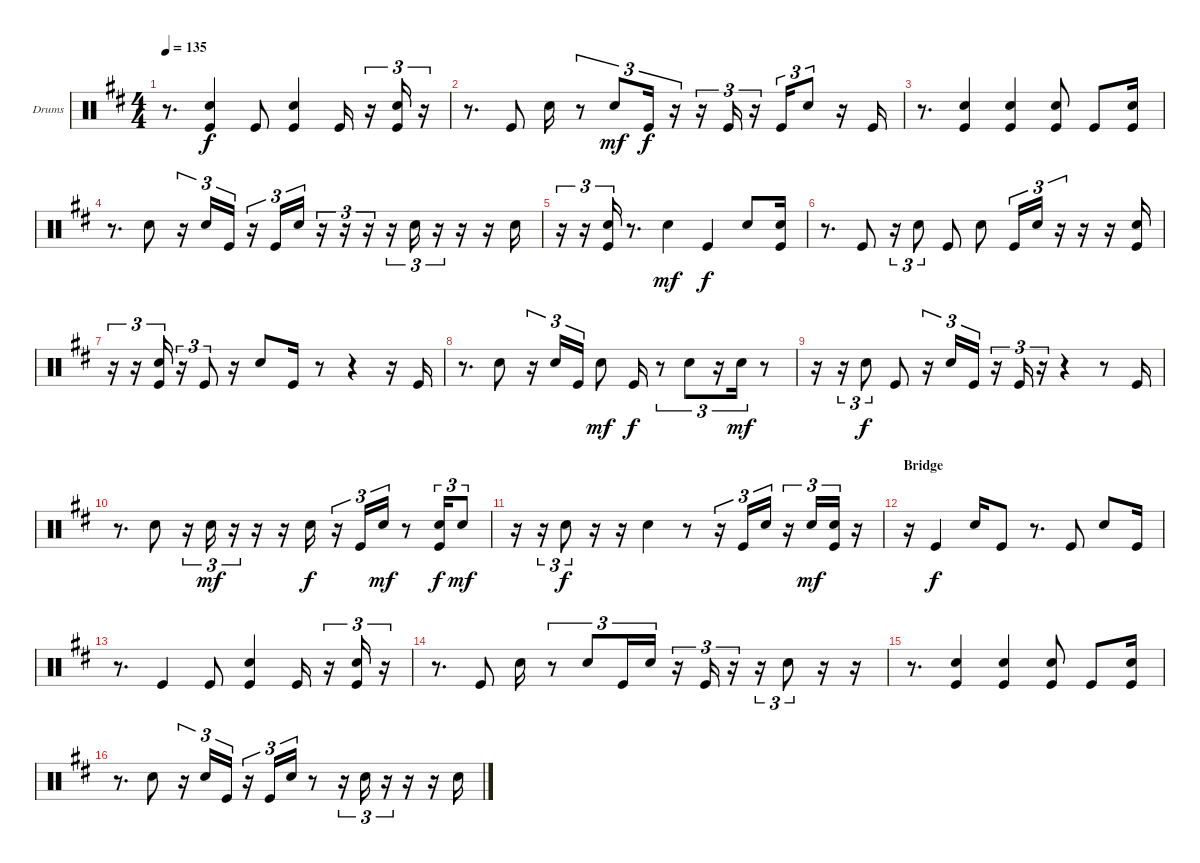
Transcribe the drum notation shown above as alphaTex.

\bracketExtendMode groupsimilarinstruments
\firstSystemTrackNameOrientation horizontal
\otherSystemsTrackNameOrientation horizontal
\track ("Kick" "Drums") {instrument percussion}
\staff {score}
\articulation defaults
\ts (4 4)
\tempo 135
\clef neutral
\ks d
r.8{d dy f} ("Kick (hit)" "Snare (hit) 2").4 "Kick (hit)".8 ("Kick (hit)" "Snare (hit) 2").4 "Kick (hit)".16 r.16{tu (3 2)} ("Kick (hit)" "Snare (hit) 2").16{tu (3 2)} r.16{tu (3 2)} |
r.8{d} "Kick (hit)".8 "Snare (hit) 2".16 r.8{tu (3 2)} "Snare (hit) 2".8{tu (3 2) dy mf} "Kick (hit)".16{tu (3 2) dy f} r.16{tu (3 2)} r.16{tu (3 2)} "Kick (hit)".16{tu (3 2)} r.16{tu (3 2)} "Kick (hit)".16{tu (3 2)} "Snare (hit) 2".8{tu (3 2)} r.16 "Kick (hit)".16 |
r.8{d} ("Kick (hit)" "Snare (hit) 2").4 ("Kick (hit)" "Snare (hit) 2").4 ("Kick (hit)" "Snare (hit) 2").8 "Kick (hit)".8 ("Kick (hit)" "Snare (hit) 2").16 |
r.8{d} "Snare (hit) 2".8 r.16{tu (3 2)} "Snare (hit) 2".16{tu (3 2)} "Kick (hit)".16{tu (3 2)} r.16{tu (3 2)} "Kick (hit)".16{tu (3 2)} "Snare (hit) 2".16{tu (3 2)} r.16{tu (3 2)} r.16{tu (3 2)} r.16{tu (3 2)} r.16{tu (3 2)} "Snare (hit) 2".16{tu (3 2)} r.16{tu (3 2)} r.16 r.16 "Snare (hit) 2".16 |
r.16{tu (3 2)} r.16{tu (3 2)} ("Kick (hit)" "Snare (hit) 2").16{tu (3 2)} r.8{d} "Snare (hit) 2".4{dy mf} "Kick (hit)".4{dy f} "Snare (hit) 2".8 ("Kick (hit)" "Snare (hit) 2").16 |
r.8{d} "Kick (hit)".8 r.16{tu (3 2)} "Snare (hit) 2".8{tu (3 2)} "Kick (hit)".8 "Snare (hit) 2".8 "Kick (hit)".16{tu (3 2)} "Snare (hit) 2".16{tu (3 2)} r.16{tu (3 2)} r.16 r.16 ("Kick (hit)" "Snare (hit) 2").16 |
\scale
0.53406 r.16{tu (3 2)} r.16{tu (3 2)} ("Kick (hit)" "Snare (hit) 2").16{tu (3 2)} r.16{tu (3 2)} "Kick (hit)".8{tu (3 2)} r.16 "Snare (hit) 2".8 "Kick (hit)".16 r.8 r.4 r.16 "Kick (hit)".16 |
\scale
0.46423 r.8{d} "Snare (hit) 2".8 r.16{tu (3 2)} "Snare (hit) 2".16{tu (3 2)} "Kick (hit)".16{tu (3 2)} "Snare (hit) 2".8{dy mf} "Kick (hit)".16{dy f} r.8{tu (3 2)} "Snare (hit) 2".8{tu (3 2)} r.16{tu (3 2)} "Snare (hit) 2".16{tu (3 2) dy mf} r.8 |
r.16 r.16{tu (3 2)} "Snare (hit) 2".8{tu (3 2) dy f} "Kick (hit)".8 r.16{tu (3 2)} "Snare (hit) 2".16{tu (3 2)} "Kick (hit)".16{tu (3 2)} r.16{tu (3 2)} "Kick (hit)".16{tu (3 2)} r.16{tu (3 2)} r.4 r.8 "Kick (hit)".16 |
r.8{d} "Snare (hit) 2".8 r.16{tu (3 2)} "Snare (hit) 2".16{tu (3 2) dy mf} r.16{tu (3 2)} r.16 r.16 "Snare (hit) 2".16{dy f} r.16{tu (3 2)} "Kick (hit)".16{tu (3 2)} "Snare (hit) 2".16{tu (3 2) dy mf} r.8 ("Kick (hit)" "Snare (hit) 2").16{tu (3 2) dy f} "Snare (hit) 2".8{tu (3 2) dy mf} |
\scale
0.515139 r.16 r.16{tu (3 2)} "Snare (hit) 2".8{tu (3 2) dy f} r.16 r.16 "Snare (hit) 2".4 r.8 r.16{tu (3 2)} "Kick (hit)".16{tu (3 2)} "Snare (hit) 2".16{tu (3 2)} r.16{tu (3 2)} "Snare (hit) 2".16{tu (3 2) dy mf} ("Snare (hit) 2" "Kick (hit)").16{tu (3 2)} r.16 |
\section ("" "Bridge")
\scale
0.484258 r.16 "Kick (hit)".4{dy f} "Snare (hit) 2".16 "Kick (hit)".8 r.8{d} "Kick (hit)".8 "Snare (hit) 2".8 "Kick (hit)".16 |
\scale
0.531216 r.8{d} "Kick (hit)".4 "Kick (hit)".8 ("Kick (hit)" "Snare (hit) 2").4 "Kick (hit)".16 r.16{tu (3 2)} ("Kick (hit)" "Snare (hit) 2").16{tu (3 2)} r.16{tu (3 2)} |
\scale
0.467587 r.8{d} "Kick (hit)".8 "Snare (hit) 2".16 r.8{tu (3 2)} "Snare (hit) 2".8{tu (3 2)} "Kick (hit)".16{tu (3 2)} "Snare (hit) 2".16{tu (3 2)} r.16{tu (3 2)} "Kick (hit)".16{tu (3 2)} r.16{tu (3 2)} r.16{tu (3 2)} "Snare (hit) 2".8{tu (3 2)} r.16 r.16 |
r.8{d} ("Kick (hit)" "Snare (hit) 2").4 ("Kick (hit)" "Snare (hit) 2").4 ("Kick (hit)" "Snare (hit) 2").8 "Kick (hit)".8 ("Kick (hit)" "Snare (hit) 2").16 |
r.8{d} "Snare (hit) 2".8 r.16{tu (3 2)} "Snare (hit) 2".16{tu (3 2)} "Kick (hit)".16{tu (3 2)} r.16{tu (3 2)} "Kick (hit)".16{tu (3 2)} "Snare (hit) 2".16{tu (3 2)} r.8 r.16{tu (3 2)} "Snare (hit) 2".16{tu (3 2)} r.16{tu (3 2)} r.16 r.16 "Snare (hit) 2".16
